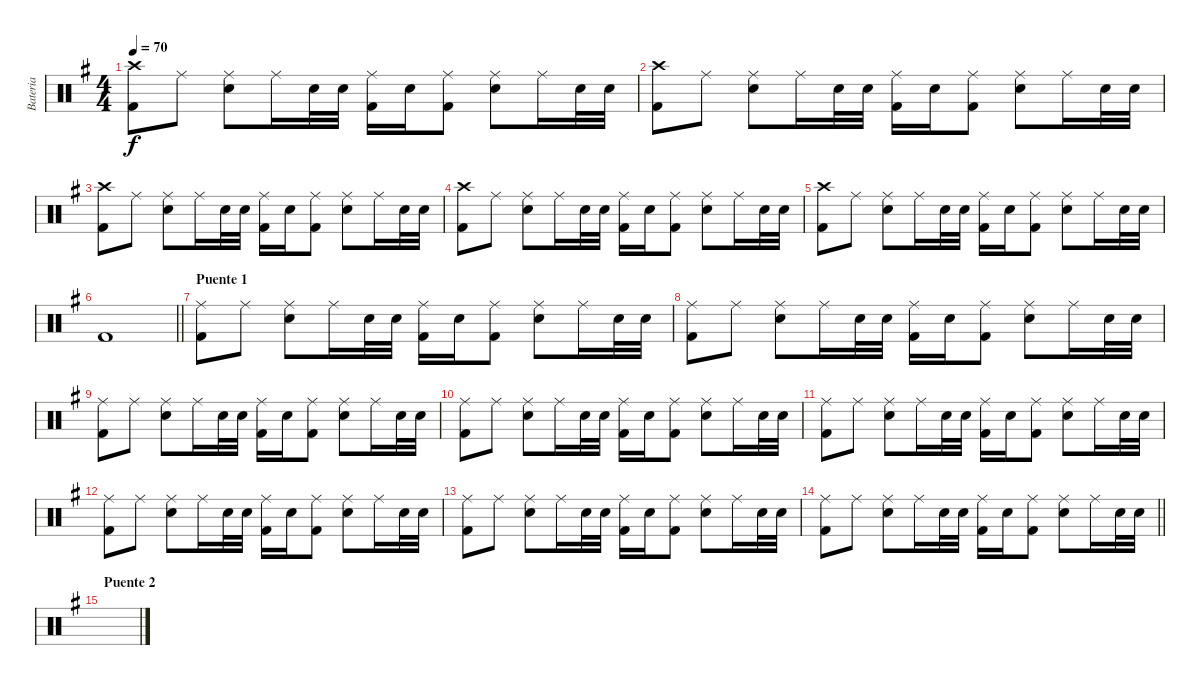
\track ("Bateria" "Bateria") {instrument percussion}
\staff {score}
\articulation defaults
\ts (4 4)
\tempo 70
\clef neutral
\ks g
("Kick (hit) 2" "Crash high (hit)").8{dy f} "Ride (middle)".8 ("Electric Snare (hit)" "Ride (middle)").8 "Ride (middle)".16 "Electric Snare (hit)".32 "Electric Snare (hit)".32 ("Kick (hit) 2" "Ride (middle)").16 "Electric Snare (hit)".16 ("Kick (hit) 2" "Ride (middle)").8 ("Electric Snare (hit)" "Ride (middle)").8 "Ride (middle)".16 "Electric Snare (hit)".32 "Electric Snare (hit)".32 |
("Kick (hit) 2" "Crash high (hit)").8 "Ride (middle)".8 ("Electric Snare (hit)" "Ride (middle)").8 "Ride (middle)".16 "Electric Snare (hit)".32 "Electric Snare (hit)".32 ("Kick (hit) 2" "Ride (middle)").16 "Electric Snare (hit)".16 ("Kick (hit) 2" "Ride (middle)").8 ("Electric Snare (hit)" "Ride (middle)").8 "Ride (middle)".16 "Electric Snare (hit)".32 "Electric Snare (hit)".32 |
("Kick (hit) 2" "Crash high (hit)").8 "Ride (middle)".8 ("Electric Snare (hit)" "Ride (middle)").8 "Ride (middle)".16 "Electric Snare (hit)".32 "Electric Snare (hit)".32 ("Kick (hit) 2" "Ride (middle)").16 "Electric Snare (hit)".16 ("Kick (hit) 2" "Ride (middle)").8 ("Electric Snare (hit)" "Ride (middle)").8 "Ride (middle)".16 "Electric Snare (hit)".32 "Electric Snare (hit)".32 |
("Kick (hit) 2" "Crash high (hit)").8 "Ride (middle)".8 ("Electric Snare (hit)" "Ride (middle)").8 "Ride (middle)".16 "Electric Snare (hit)".32 "Electric Snare (hit)".32 ("Kick (hit) 2" "Ride (middle)").16 "Electric Snare (hit)".16 ("Kick (hit) 2" "Ride (middle)").8 ("Electric Snare (hit)" "Ride (middle)").8 "Ride (middle)".16 "Electric Snare (hit)".32 "Electric Snare (hit)".32 |
("Kick (hit) 2" "Crash high (hit)").8 "Ride (middle)".8 ("Electric Snare (hit)" "Ride (middle)").8 "Ride (middle)".16 "Electric Snare (hit)".32 "Electric Snare (hit)".32 ("Kick (hit) 2" "Ride (middle)").16 "Electric Snare (hit)".16 ("Kick (hit) 2" "Ride (middle)").8 ("Electric Snare (hit)" "Ride (middle)").8 "Ride (middle)".16 "Electric Snare (hit)".32 "Electric Snare (hit)".32 |
\barLineRight lightlight "Kick (hit) 2".1
|
\section ("" "Puente 1")
("Kick (hit) 2" "Ride (middle)").8 "Ride (middle)".8 ("Electric Snare (hit)" "Ride (middle)").8 "Ride (middle)".16 "Electric Snare (hit)".32 "Electric Snare (hit)".32 ("Kick (hit) 2" "Ride (middle)").16 "Electric Snare (hit)".16 ("Kick (hit) 2" "Ride (middle)").8 ("Electric Snare (hit)" "Ride (middle)").8 "Ride (middle)".16 "Electric Snare (hit)".32 "Electric Snare (hit)".32 |
("Kick (hit) 2" "Ride (middle)").8 "Ride (middle)".8 ("Electric Snare (hit)" "Ride (middle)").8 "Ride (middle)".16 "Electric Snare (hit)".32 "Electric Snare (hit)".32 ("Kick (hit) 2" "Ride (middle)").16 "Electric Snare (hit)".16 ("Kick (hit) 2" "Ride (middle)").8 ("Electric Snare (hit)" "Ride (middle)").8 "Ride (middle)".16 "Electric Snare (hit)".32 "Electric Snare (hit)".32 |
("Kick (hit) 2" "Ride (middle)").8 "Ride (middle)".8 ("Electric Snare (hit)" "Ride (middle)").8 "Ride (middle)".16 "Electric Snare (hit)".32 "Electric Snare (hit)".32 ("Kick (hit) 2" "Ride (middle)").16 "Electric Snare (hit)".16 ("Kick (hit) 2" "Ride (middle)").8 ("Electric Snare (hit)" "Ride (middle)").8 "Ride (middle)".16 "Electric Snare (hit)".32 "Electric Snare (hit)".32 |
("Kick (hit) 2" "Ride (middle)").8 "Ride (middle)".8 ("Electric Snare (hit)" "Ride (middle)").8 "Ride (middle)".16 "Electric Snare (hit)".32 "Electric Snare (hit)".32 ("Kick (hit) 2" "Ride (middle)").16 "Electric Snare (hit)".16 ("Kick (hit) 2" "Ride (middle)").8 ("Electric Snare (hit)" "Ride (middle)").8 "Ride (middle)".16 "Electric Snare (hit)".32 "Electric Snare (hit)".32 |
("Kick (hit) 2" "Ride (middle)").8 "Ride (middle)".8 ("Electric Snare (hit)" "Ride (middle)").8 "Ride (middle)".16 "Electric Snare (hit)".32 "Electric Snare (hit)".32 ("Kick (hit) 2" "Ride (middle)").16 "Electric Snare (hit)".16 ("Kick (hit) 2" "Ride (middle)").8 ("Electric Snare (hit)" "Ride (middle)").8 "Ride (middle)".16 "Electric Snare (hit)".32 "Electric Snare (hit)".32 |
("Kick (hit) 2" "Ride (middle)").8 "Ride (middle)".8 ("Electric Snare (hit)" "Ride (middle)").8 "Ride (middle)".16 "Electric Snare (hit)".32 "Electric Snare (hit)".32 ("Kick (hit) 2" "Ride (middle)").16 "Electric Snare (hit)".16 ("Kick (hit) 2" "Ride (middle)").8 ("Electric Snare (hit)" "Ride (middle)").8 "Ride (middle)".16 "Electric Snare (hit)".32 "Electric Snare (hit)".32 |
("Kick (hit) 2" "Ride (middle)").8 "Ride (middle)".8 ("Electric Snare (hit)" "Ride (middle)").8 "Ride (middle)".16 "Electric Snare (hit)".32 "Electric Snare (hit)".32 ("Kick (hit) 2" "Ride (middle)").16 "Electric Snare (hit)".16 ("Kick (hit) 2" "Ride (middle)").8 ("Electric Snare (hit)" "Ride (middle)").8 "Ride (middle)".16 "Electric Snare (hit)".32 "Electric Snare (hit)".32 |
\barLineRight lightlight
("Kick (hit) 2" "Ride (middle)").8 "Ride (middle)".8 ("Electric Snare (hit)" "Ride (middle)").8 "Ride (middle)".16 "Electric Snare (hit)".32 "Electric Snare (hit)".32 ("Kick (hit) 2" "Ride (middle)").16 "Electric Snare (hit)".16 ("Kick (hit) 2" "Ride (middle)").8 ("Electric Snare (hit)" "Ride (middle)").8 "Ride (middle)".16 "Electric Snare (hit)".32 "Electric Snare (hit)".32 |
\section ("" "Puente 2")
